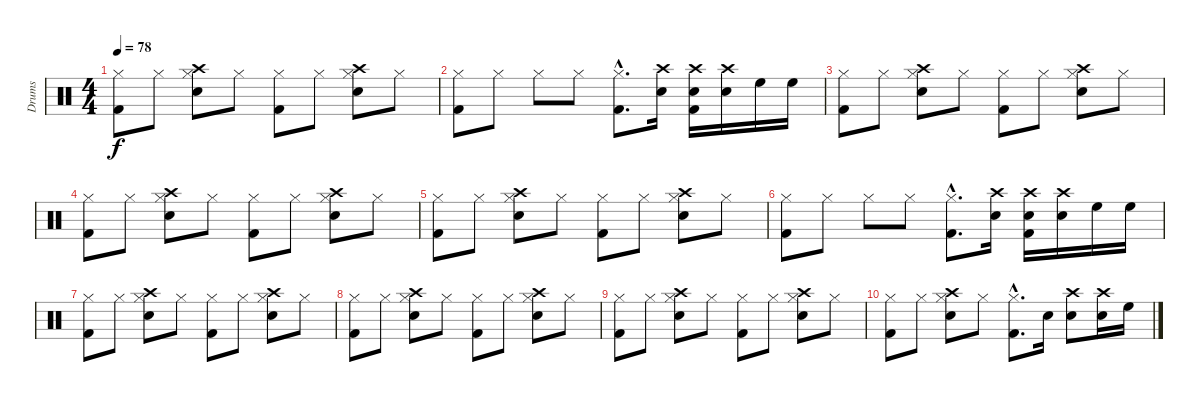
\track ("Drums" "Drums") {instrument percussion}
\staff {score}
\articulation defaults
\ts (4 4)
\tempo 78
\clef neutral
\ks c
("Hi-Hat (closed)" "Kick (hit) 2").8{dy f} "Hi-Hat (closed)".8 ("Crash high (hit)" "Hi-Hat (closed)" "Snare (hit) 2").8 "Hi-Hat (closed)".8 ("Hi-Hat (closed)" "Kick (hit) 2").8 "Hi-Hat (closed)".8 ("Crash high (hit)" "Hi-Hat (closed)" "Snare (hit) 2").8 "Hi-Hat (closed)".8 |
("Hi-Hat (closed)" "Kick (hit) 2").8 "Hi-Hat (closed)".8 "Hi-Hat (closed)".8 "Hi-Hat (closed)".8 ("Hi-Hat (closed)"{hac} "Kick (hit) 2"{hac}).8{d} ("Crash high (hit)" "Snare (hit) 2").16 ("Crash high (hit)" "Snare (hit) 2" "Kick (hit) 2").16 ("Crash high (hit)" "Snare (hit) 2").16 "High Floor Tom (hit)".16 "High Floor Tom (hit)".16 |
("Hi-Hat (closed)" "Kick (hit) 2").8 "Hi-Hat (closed)".8 ("Crash high (hit)" "Hi-Hat (closed)" "Snare (hit) 2").8 "Hi-Hat (closed)".8 ("Hi-Hat (closed)" "Kick (hit) 2").8 "Hi-Hat (closed)".8 ("Crash high (hit)" "Hi-Hat (closed)" "Snare (hit) 2").8 "Hi-Hat (closed)".8 |
("Hi-Hat (closed)" "Kick (hit) 2").8 "Hi-Hat (closed)".8 ("Crash high (hit)" "Hi-Hat (closed)" "Snare (hit) 2").8 "Hi-Hat (closed)".8 ("Hi-Hat (closed)" "Kick (hit) 2").8 "Hi-Hat (closed)".8 ("Crash high (hit)" "Hi-Hat (closed)" "Snare (hit) 2").8 "Hi-Hat (closed)".8 |
("Hi-Hat (closed)" "Kick (hit) 2").8 "Hi-Hat (closed)".8 ("Crash high (hit)" "Hi-Hat (closed)" "Snare (hit) 2").8 "Hi-Hat (closed)".8 ("Hi-Hat (closed)" "Kick (hit) 2").8 "Hi-Hat (closed)".8 ("Crash high (hit)" "Hi-Hat (closed)" "Snare (hit) 2").8 "Hi-Hat (closed)".8 |
("Hi-Hat (closed)" "Kick (hit) 2").8 "Hi-Hat (closed)".8 "Hi-Hat (closed)".8 "Hi-Hat (closed)".8 ("Hi-Hat (closed)"{hac} "Kick (hit) 2"{hac}).8{d} ("Crash high (hit)" "Snare (hit) 2").16 ("Crash high (hit)" "Snare (hit) 2" "Kick (hit) 2").16 ("Crash high (hit)" "Snare (hit) 2").16 "High Floor Tom (hit)".16 "High Floor Tom (hit)".16 |
("Hi-Hat (closed)" "Kick (hit) 2").8 "Hi-Hat (closed)".8 ("Crash high (hit)" "Hi-Hat (closed)" "Snare (hit) 2").8 "Hi-Hat (closed)".8 ("Hi-Hat (closed)" "Kick (hit) 2").8 "Hi-Hat (closed)".8 ("Crash high (hit)" "Hi-Hat (closed)" "Snare (hit) 2").8 "Hi-Hat (closed)".8 |
("Hi-Hat (closed)" "Kick (hit) 2").8 "Hi-Hat (closed)".8 ("Crash high (hit)" "Hi-Hat (closed)" "Snare (hit) 2").8 "Hi-Hat (closed)".8 ("Hi-Hat (closed)" "Kick (hit) 2").8 "Hi-Hat (closed)".8 ("Crash high (hit)" "Hi-Hat (closed)" "Snare (hit) 2").8 "Hi-Hat (closed)".8 |
("Hi-Hat (closed)" "Kick (hit) 2").8 "Hi-Hat (closed)".8 ("Crash high (hit)" "Hi-Hat (closed)" "Snare (hit) 2").8 "Hi-Hat (closed)".8 ("Hi-Hat (closed)" "Kick (hit) 2").8 "Hi-Hat (closed)".8 ("Crash high (hit)" "Hi-Hat (closed)" "Snare (hit) 2").8 "Hi-Hat (closed)".8 |
("Hi-Hat (closed)" "Kick (hit) 2").8 "Hi-Hat (closed)".8 ("Crash high (hit)" "Hi-Hat (closed)" "Snare (hit) 2").8 "Hi-Hat (closed)".8 ("Hi-Hat (closed)"{hac} "Kick (hit) 2"{hac}).8{d} "Snare (hit) 2".16 ("Crash high (hit)" "Snare (hit) 2").8 ("Crash high (hit)" "Snare (hit) 2").16 "High Floor Tom (hit)".16
